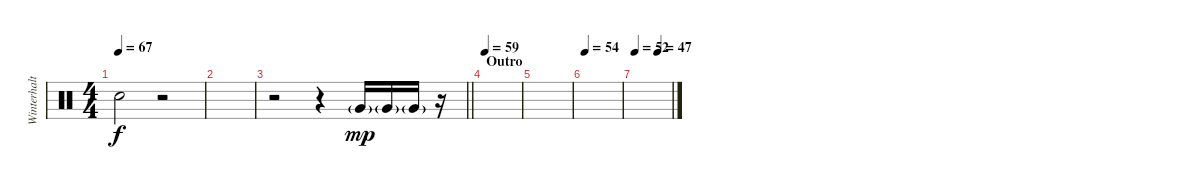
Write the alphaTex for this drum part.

\track ("Winterhalten" "Winterhalt") {instrument percussion}
\staff {score}
\articulation defaults
\ts (4 4)
\tempo 67
\clef neutral
\ks c "Snare (hit)"{t}.2{dy f}
r.2 |
|
\barLineRight lightlight
r.2 r.4 "Very Low Tom (hit)"{g}.16{dy mp} "Very Low Tom (hit)"{g}.16 "Very Low Tom (hit)"{g}.16 r.16 |
\section ("" "Outro")
\tempo 59
|
|
\tempo 54
|
\tempo 52
\tempo (47 0.625)
